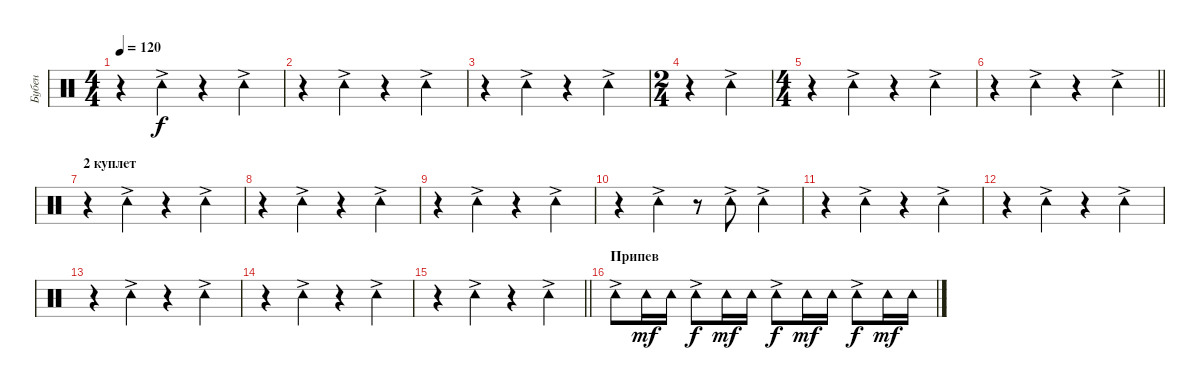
\track ("Бубен" "Бубен") {instrument percussion}
\staff {score}
\articulation defaults
\ts (4 4)
\tempo 120
\clef neutral
\ks c
r.4{dy f} "Tambourine (hit)"{ac}.4 r.4 "Tambourine (hit)"{ac}.4 |
r.4 "Tambourine (hit)"{ac}.4 r.4 "Tambourine (hit)"{ac}.4 |
r.4 "Tambourine (hit)"{ac}.4 r.4 "Tambourine (hit)"{ac}.4 |
\ts (2 4)
r.4 "Tambourine (hit)"{ac}.4 |
\ts (4 4)
r.4 "Tambourine (hit)"{ac}.4 r.4 "Tambourine (hit)"{ac}.4 |
\barLineRight lightlight
r.4 "Tambourine (hit)"{ac}.4 r.4 "Tambourine (hit)"{ac}.4 |
\section ("" "2 куплет")
r.4 "Tambourine (hit)"{ac}.4 r.4 "Tambourine (hit)"{ac}.4 |
r.4 "Tambourine (hit)"{ac}.4 r.4 "Tambourine (hit)"{ac}.4 |
r.4 "Tambourine (hit)"{ac}.4 r.4 "Tambourine (hit)"{ac}.4 |
r.4 "Tambourine (hit)"{ac}.4 r.8 "Tambourine (hit)"{ac}.8 "Tambourine (hit)"{ac}.4 |
r.4 "Tambourine (hit)"{ac}.4 r.4 "Tambourine (hit)"{ac}.4 |
r.4 "Tambourine (hit)"{ac}.4 r.4 "Tambourine (hit)"{ac}.4 |
r.4 "Tambourine (hit)"{ac}.4 r.4 "Tambourine (hit)"{ac}.4 |
r.4 "Tambourine (hit)"{ac}.4 r.4 "Tambourine (hit)"{ac}.4 |
\barLineRight lightlight
r.4 "Tambourine (hit)"{ac}.4 r.4 "Tambourine (hit)"{ac}.4 |
\section ("" "Припев")
"Tambourine (hit)"{ac}.8 "Tambourine (hit)".16{dy mf} "Tambourine (hit)".16 "Tambourine (hit)"{ac}.8{dy f} "Tambourine (hit)".16{dy mf} "Tambourine (hit)".16 "Tambourine (hit)"{ac}.8{dy f} "Tambourine (hit)".16{dy mf} "Tambourine (hit)".16 "Tambourine (hit)"{ac}.8{dy f} "Tambourine (hit)".16{dy mf} "Tambourine (hit)".16
